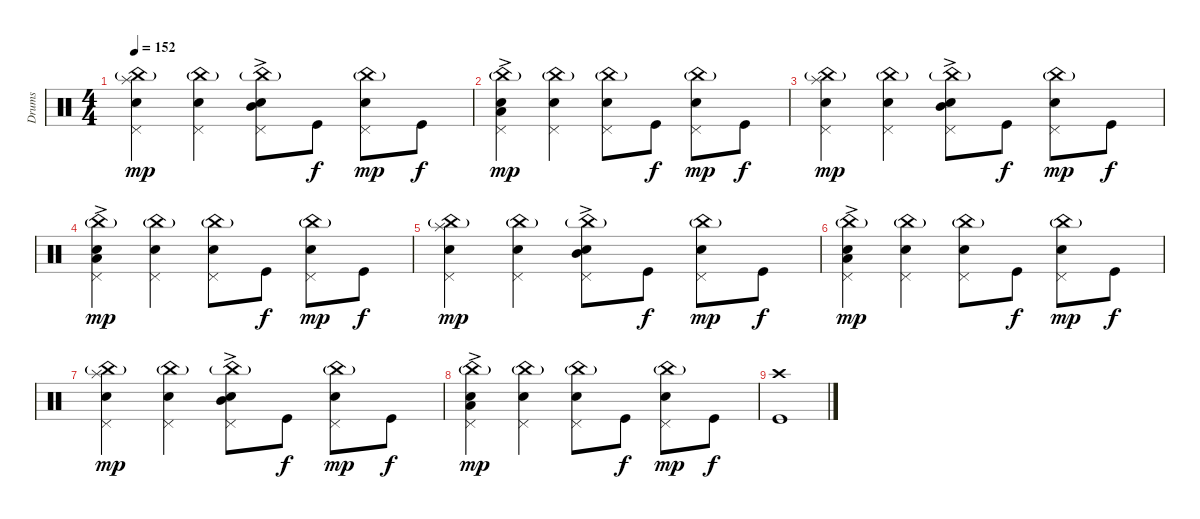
\track ("Drums" "Drums") {instrument percussion}
\staff {score}
\articulation defaults
\ts (4 4)
\tempo 152
\clef neutral
\ks c
("Splash (hit)" "China (hit)"{g} "Electric Snare (hit)" "Pedal Hi-Hat (hit)").4{dy mp} ("China (hit)"{g} "Electric Snare (hit)" "Pedal Hi-Hat (hit)").4 ("Mid Tom (hit)"{ac} "China (hit)"{g} "Electric Snare (hit)" "Pedal Hi-Hat (hit)").8 "Kick (hit)".8{dy f} ("China (hit)"{g} "Electric Snare (hit)" "Pedal Hi-Hat (hit)").8{dy mp} "Kick (hit)".8{dy f} |
("Low Tom (hit)"{ac} "China (hit)"{g} "Electric Snare (hit)" "Pedal Hi-Hat (hit)").4{dy mp} ("China (hit)"{g} "Electric Snare (hit)" "Pedal Hi-Hat (hit)").4 ("China (hit)"{g} "Electric Snare (hit)" "Pedal Hi-Hat (hit)").8 "Kick (hit)".8{dy f} ("China (hit)"{g} "Electric Snare (hit)" "Pedal Hi-Hat (hit)").8{dy mp} "Kick (hit)".8{dy f} |
("Splash (hit)" "China (hit)"{g} "Electric Snare (hit)" "Pedal Hi-Hat (hit)").4{dy mp} ("China (hit)"{g} "Electric Snare (hit)" "Pedal Hi-Hat (hit)").4 ("Mid Tom (hit)"{ac} "China (hit)"{g} "Electric Snare (hit)" "Pedal Hi-Hat (hit)").8 "Kick (hit)".8{dy f} ("China (hit)"{g} "Electric Snare (hit)" "Pedal Hi-Hat (hit)").8{dy mp} "Kick (hit)".8{dy f} |
("Low Tom (hit)"{ac} "China (hit)"{g} "Electric Snare (hit)" "Pedal Hi-Hat (hit)").4{dy mp} ("China (hit)"{g} "Electric Snare (hit)" "Pedal Hi-Hat (hit)").4 ("China (hit)"{g} "Electric Snare (hit)" "Pedal Hi-Hat (hit)").8 "Kick (hit)".8{dy f} ("China (hit)"{g} "Electric Snare (hit)" "Pedal Hi-Hat (hit)").8{dy mp} "Kick (hit)".8{dy f} |
("Splash (hit)" "China (hit)"{g} "Electric Snare (hit)" "Pedal Hi-Hat (hit)").4{dy mp} ("China (hit)"{g} "Electric Snare (hit)" "Pedal Hi-Hat (hit)").4 ("Mid Tom (hit)"{ac} "China (hit)"{g} "Electric Snare (hit)" "Pedal Hi-Hat (hit)").8 "Kick (hit)".8{dy f} ("China (hit)"{g} "Electric Snare (hit)" "Pedal Hi-Hat (hit)").8{dy mp} "Kick (hit)".8{dy f} |
("Low Tom (hit)"{ac} "China (hit)"{g} "Electric Snare (hit)" "Pedal Hi-Hat (hit)").4{dy mp} ("China (hit)"{g} "Electric Snare (hit)" "Pedal Hi-Hat (hit)").4 ("China (hit)"{g} "Electric Snare (hit)" "Pedal Hi-Hat (hit)").8 "Kick (hit)".8{dy f} ("China (hit)"{g} "Electric Snare (hit)" "Pedal Hi-Hat (hit)").8{dy mp} "Kick (hit)".8{dy f} |
("Splash (hit)" "China (hit)"{g} "Electric Snare (hit)" "Pedal Hi-Hat (hit)").4{dy mp} ("China (hit)"{g} "Electric Snare (hit)" "Pedal Hi-Hat (hit)").4 ("Mid Tom (hit)"{ac} "China (hit)"{g} "Electric Snare (hit)" "Pedal Hi-Hat (hit)").8 "Kick (hit)".8{dy f} ("China (hit)"{g} "Electric Snare (hit)" "Pedal Hi-Hat (hit)").8{dy mp} "Kick (hit)".8{dy f} |
("Low Tom (hit)"{ac} "China (hit)"{g} "Electric Snare (hit)" "Pedal Hi-Hat (hit)").4{dy mp} ("China (hit)"{g} "Electric Snare (hit)" "Pedal Hi-Hat (hit)").4 ("China (hit)"{g} "Electric Snare (hit)" "Pedal Hi-Hat (hit)").8 "Kick (hit)".8{dy f} ("China (hit)"{g} "Electric Snare (hit)" "Pedal Hi-Hat (hit)").8{dy mp} "Kick (hit)".8{dy f} |
("Crash high (hit)" "Kick (hit)").1
